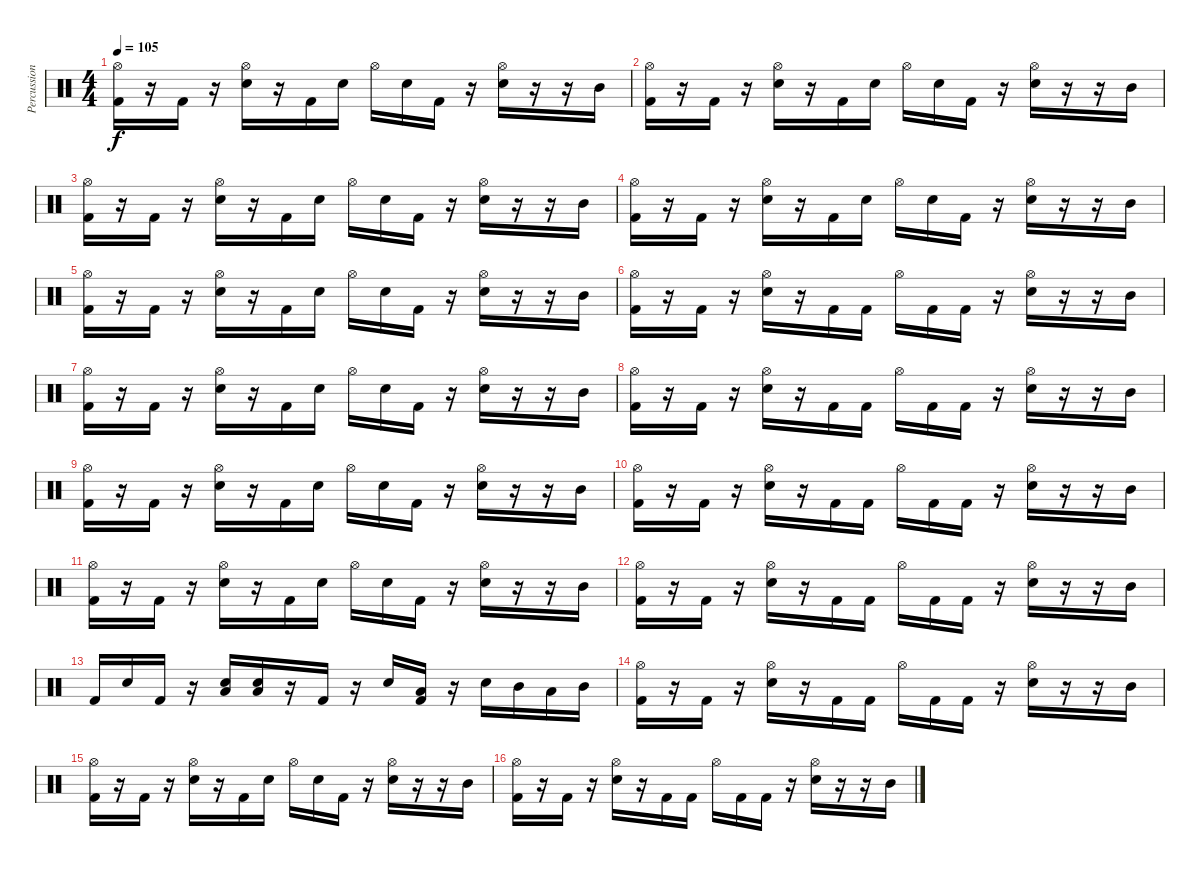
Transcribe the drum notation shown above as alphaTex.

\track ("Percussion" "Percussion") {instrument percussion}
\staff {score}
\articulation defaults
\ts (4 4)
\tempo 105
\clef neutral
\ks c
("Hi-Hat (open)" "Kick (hit) 2").16{dy f} r.16 "Kick (hit) 2".16 r.16 ("Hi-Hat (open)" "Snare (hit) 2").16 r.16 "Kick (hit) 2".16 "Snare (hit) 2".16 "Hi-Hat (open)".16 "Snare (hit) 2".16 "Kick (hit) 2".16 r.16 ("Hi-Hat (open)" "Snare (hit) 2").16 r.16 r.16 "Mid Tom (hit)".16 |
("Hi-Hat (open)" "Kick (hit) 2").16 r.16 "Kick (hit) 2".16 r.16 ("Hi-Hat (open)" "Snare (hit) 2").16 r.16 "Kick (hit) 2".16 "Snare (hit) 2".16 "Hi-Hat (open)".16 "Snare (hit) 2".16 "Kick (hit) 2".16 r.16 ("Hi-Hat (open)" "Snare (hit) 2").16 r.16 r.16 "Mid Tom (hit)".16 |
("Hi-Hat (open)" "Kick (hit) 2").16 r.16 "Kick (hit) 2".16 r.16 ("Hi-Hat (open)" "Snare (hit) 2").16 r.16 "Kick (hit) 2".16 "Snare (hit) 2".16 "Hi-Hat (open)".16 "Snare (hit) 2".16 "Kick (hit) 2".16 r.16 ("Hi-Hat (open)" "Snare (hit) 2").16 r.16 r.16 "Mid Tom (hit)".16 |
("Hi-Hat (open)" "Kick (hit) 2").16 r.16 "Kick (hit) 2".16 r.16 ("Hi-Hat (open)" "Snare (hit) 2").16 r.16 "Kick (hit) 2".16 "Snare (hit) 2".16 "Hi-Hat (open)".16 "Snare (hit) 2".16 "Kick (hit) 2".16 r.16 ("Hi-Hat (open)" "Snare (hit) 2").16 r.16 r.16 "Mid Tom (hit)".16 |
("Hi-Hat (open)" "Kick (hit) 2").16 r.16 "Kick (hit) 2".16 r.16 ("Hi-Hat (open)" "Snare (hit) 2").16 r.16 "Kick (hit) 2".16 "Snare (hit) 2".16 "Hi-Hat (open)".16 "Snare (hit) 2".16 "Kick (hit) 2".16 r.16 ("Hi-Hat (open)" "Snare (hit) 2").16 r.16 r.16 "Mid Tom (hit)".16 |
("Hi-Hat (open)" "Kick (hit) 2").16 r.16 "Kick (hit) 2".16 r.16 ("Hi-Hat (open)" "Snare (hit) 2").16 r.16 "Kick (hit) 2".16 "Kick (hit) 2".16 "Hi-Hat (open)".16 "Kick (hit) 2".16 "Kick (hit) 2".16 r.16 ("Hi-Hat (open)" "Snare (hit) 2").16 r.16 r.16 "Mid Tom (hit)".16 |
("Hi-Hat (open)" "Kick (hit) 2").16 r.16 "Kick (hit) 2".16 r.16 ("Hi-Hat (open)" "Snare (hit) 2").16 r.16 "Kick (hit) 2".16 "Snare (hit) 2".16 "Hi-Hat (open)".16 "Snare (hit) 2".16 "Kick (hit) 2".16 r.16 ("Hi-Hat (open)" "Snare (hit) 2").16 r.16 r.16 "Mid Tom (hit)".16 |
("Hi-Hat (open)" "Kick (hit) 2").16 r.16 "Kick (hit) 2".16 r.16 ("Hi-Hat (open)" "Snare (hit) 2").16 r.16 "Kick (hit) 2".16 "Kick (hit) 2".16 "Hi-Hat (open)".16 "Kick (hit) 2".16 "Kick (hit) 2".16 r.16 ("Hi-Hat (open)" "Snare (hit) 2").16 r.16 r.16 "Mid Tom (hit)".16 |
("Hi-Hat (open)" "Kick (hit) 2").16 r.16 "Kick (hit) 2".16 r.16 ("Hi-Hat (open)" "Snare (hit) 2").16 r.16 "Kick (hit) 2".16 "Snare (hit) 2".16 "Hi-Hat (open)".16 "Snare (hit) 2".16 "Kick (hit) 2".16 r.16 ("Hi-Hat (open)" "Snare (hit) 2").16 r.16 r.16 "Mid Tom (hit)".16 |
("Hi-Hat (open)" "Kick (hit) 2").16 r.16 "Kick (hit) 2".16 r.16 ("Hi-Hat (open)" "Snare (hit) 2").16 r.16 "Kick (hit) 2".16 "Kick (hit) 2".16 "Hi-Hat (open)".16 "Kick (hit) 2".16 "Kick (hit) 2".16 r.16 ("Hi-Hat (open)" "Snare (hit) 2").16 r.16 r.16 "Mid Tom (hit)".16 |
("Hi-Hat (open)" "Kick (hit) 2").16 r.16 "Kick (hit) 2".16 r.16 ("Hi-Hat (open)" "Snare (hit) 2").16 r.16 "Kick (hit) 2".16 "Snare (hit) 2".16 "Hi-Hat (open)".16 "Snare (hit) 2".16 "Kick (hit) 2".16 r.16 ("Hi-Hat (open)" "Snare (hit) 2").16 r.16 r.16 "Mid Tom (hit)".16 |
("Hi-Hat (open)" "Kick (hit) 2").16 r.16 "Kick (hit) 2".16 r.16 ("Hi-Hat (open)" "Snare (hit) 2").16 r.16 "Kick (hit) 2".16 "Kick (hit) 2".16 "Hi-Hat (open)".16 "Kick (hit) 2".16 "Kick (hit) 2".16 r.16 ("Hi-Hat (open)" "Snare (hit) 2").16 r.16 r.16 "Mid Tom (hit)".16 |
"Kick (hit) 2".16 "Snare (hit) 2".16 "Kick (hit) 2".16 r.16 ("Low Tom (hit)" "Snare (hit) 2").16 ("Low Tom (hit)" "Snare (hit) 2").16 r.16 "Kick (hit) 2".16 r.16 "Snare (hit) 2".16 ("Low Tom (hit)" "Kick (hit) 2").16 r.16 "Snare (hit) 2".16 "Mid Tom (hit)".16 "Low Tom (hit)".16 "Mid Tom (hit)".16 |
("Hi-Hat (open)" "Kick (hit) 2").16 r.16 "Kick (hit) 2".16 r.16 ("Hi-Hat (open)" "Snare (hit) 2").16 r.16 "Kick (hit) 2".16 "Kick (hit) 2".16 "Hi-Hat (open)".16 "Kick (hit) 2".16 "Kick (hit) 2".16 r.16 ("Hi-Hat (open)" "Snare (hit) 2").16 r.16 r.16 "Mid Tom (hit)".16 |
("Hi-Hat (open)" "Kick (hit) 2").16 r.16 "Kick (hit) 2".16 r.16 ("Hi-Hat (open)" "Snare (hit) 2").16 r.16 "Kick (hit) 2".16 "Snare (hit) 2".16 "Hi-Hat (open)".16 "Snare (hit) 2".16 "Kick (hit) 2".16 r.16 ("Hi-Hat (open)" "Snare (hit) 2").16 r.16 r.16 "Mid Tom (hit)".16 |
("Hi-Hat (open)" "Kick (hit) 2").16 r.16 "Kick (hit) 2".16 r.16 ("Hi-Hat (open)" "Snare (hit) 2").16 r.16 "Kick (hit) 2".16 "Kick (hit) 2".16 "Hi-Hat (open)".16 "Kick (hit) 2".16 "Kick (hit) 2".16 r.16 ("Hi-Hat (open)" "Snare (hit) 2").16 r.16 r.16 "Mid Tom (hit)".16
